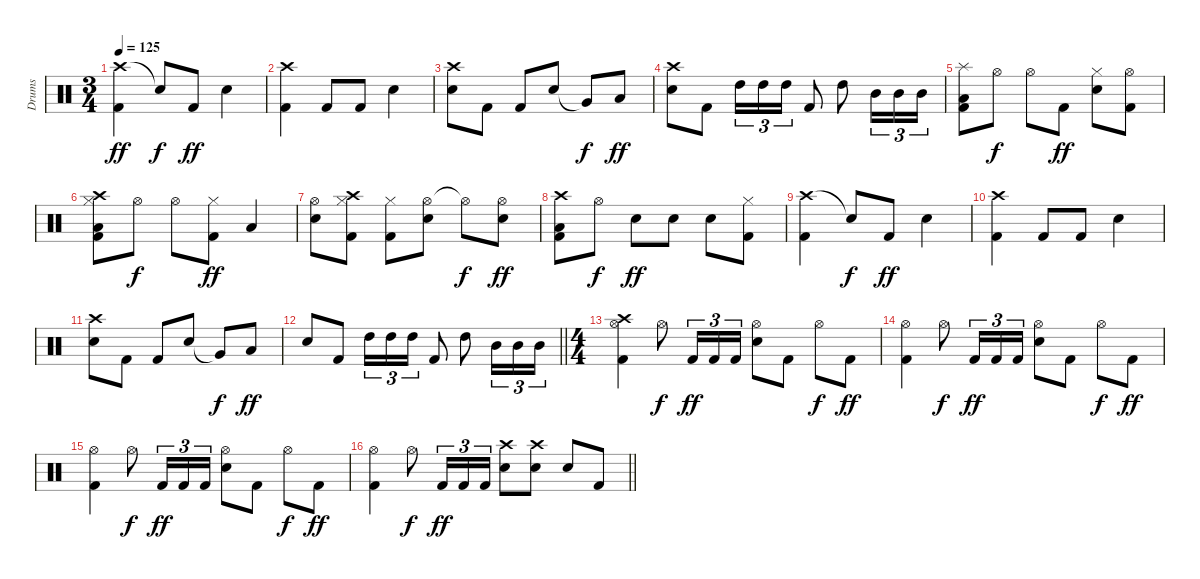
\track ("Drums" "Drums") {instrument percussion}
\staff {score}
\articulation defaults
\ts (3 4)
\section ("" "")
\tempo 125
\clef neutral
\ks c
("Crash high (hit)" "Kick (hit) 2").4{dy ff} "Snare (hit)"{t}.8{dy f} "Kick (hit) 2".8{dy ff} "Snare (hit) 2".4 |
("Crash high (hit)" "Kick (hit) 2").4 "Kick (hit) 2".8 "Kick (hit) 2".8 "Snare (hit) 2".4 |
("Crash high (hit)" "Snare (hit) 2").8 "Kick (hit) 2".8 "Kick (hit) 2".8 "Snare (hit) 2".8 "Very Low Tom (hit)"{t}.8{dy f} "Low Floor Tom (hit)".8{dy ff} |
("Crash high (hit)" "Snare (hit) 2").8 "Kick (hit) 2".8 "High Tom (hit)".16{tu (3 2)} "High Tom (hit)".16{tu (3 2)} "High Tom (hit)".16{tu (3 2)} "Kick (hit) 2".8 "High Tom (hit)".8 "Mid Tom (hit)".16{tu (3 2)} "Mid Tom (hit)".16{tu (3 2)} "Mid Tom (hit)".16{tu (3 2)} |
("Splash (hit)" "Low Floor Tom (hit)" "Kick (hit) 2").8 "Hi-Hat (open)".8{dy f} "Hi-Hat (open)".8 "Kick (hit) 2".8{dy ff} ("Hi-Hat (closed)" "Snare (hit) 2").8 ("Hi-Hat (open)" "Kick (hit) 2").8 |
("Crash high (hit)" "Hi-Hat (closed)" "Low Floor Tom (hit)" "Kick (hit) 2").8 "Hi-Hat (open)".8{dy f} "Hi-Hat (open)".8 ("Hi-Hat (closed)" "Kick (hit) 2").8{dy ff} "Low Floor Tom (hit)".4 |
("Hi-Hat (open)" "Snare (hit) 2").8 ("Crash high (hit)" "Hi-Hat (closed)" "Kick (hit) 2").8 ("Hi-Hat (closed)" "Kick (hit) 2").8 ("Hi-Hat (open)" "Snare (hit) 2").8 "Hi-Hat (open)"{t}.8{dy f} ("Hi-Hat (open)" "Snare (hit) 2").8{dy ff} |
("Crash high (hit)" "Low Floor Tom (hit)" "Kick (hit) 2").8 "Hi-Hat (open)".8{dy f} "Snare (hit) 2".8{dy ff} "Snare (hit) 2".8 "Snare (hit) 2".8 ("Hi-Hat (closed)" "Kick (hit) 2").8 |
("Crash high (hit)" "Kick (hit) 2").4 "Snare (hit)"{t}.8{dy f} "Kick (hit) 2".8{dy ff} "Snare (hit) 2".4 |
("Crash high (hit)" "Kick (hit) 2").4 "Kick (hit) 2".8 "Kick (hit) 2".8 "Snare (hit) 2".4 |
("Crash high (hit)" "Snare (hit) 2").8 "Kick (hit) 2".8 "Kick (hit) 2".8 "Snare (hit) 2".8 "Very Low Tom (hit)"{t}.8{dy f} "Low Floor Tom (hit)".8{dy ff} |
\barLineRight lightlight "Snare (hit) 2".8 "Kick (hit) 2".8 "High Tom (hit)".16{tu (3 2)} "High Tom (hit)".16{tu (3 2)} "High Tom (hit)".16{tu (3 2)} "Kick (hit) 2".8 "High Tom (hit)".8 "Mid Tom (hit)".16{tu (3 2)} "Mid Tom (hit)".16{tu (3 2)} "Mid Tom (hit)".16{tu (3 2)}
|
\ts (4 4)
\section ("" "")
("Crash high (hit)" "Hi-Hat (open)" "Kick (hit) 2").4 "Hi-Hat (open)".8{dy f} "Kick (hit) 2".16{tu (3 2) dy ff} "Kick (hit) 2".16{tu (3 2)} "Kick (hit) 2".16{tu (3 2)} ("Hi-Hat (open)" "Snare (hit) 2").8 "Kick (hit) 2".8 "Hi-Hat (open)".8{dy f} "Kick (hit) 2".8{dy ff} |
("Hi-Hat (open)" "Kick (hit) 2").4 "Hi-Hat (open)".8{dy f} "Kick (hit) 2".16{tu (3 2) dy ff} "Kick (hit) 2".16{tu (3 2)} "Kick (hit) 2".16{tu (3 2)} ("Hi-Hat (open)" "Snare (hit) 2").8 "Kick (hit) 2".8 "Hi-Hat (open)".8{dy f} "Kick (hit) 2".8{dy ff} |
("Hi-Hat (open)" "Kick (hit) 2").4 "Hi-Hat (open)".8{dy f} "Kick (hit) 2".16{tu (3 2) dy ff} "Kick (hit) 2".16{tu (3 2)} "Kick (hit) 2".16{tu (3 2)} ("Hi-Hat (open)" "Snare (hit) 2").8 "Kick (hit) 2".8 "Hi-Hat (open)".8{dy f} "Kick (hit) 2".8{dy ff} |
\barLineRight lightlight
("Hi-Hat (open)" "Kick (hit) 2").4 "Hi-Hat (open)".8{dy f} "Kick (hit) 2".16{tu (3 2) dy ff} "Kick (hit) 2".16{tu (3 2)} "Kick (hit) 2".16{tu (3 2)} ("Crash high (hit)" "Snare (hit) 2").8 ("Crash high (hit)" "Snare (hit) 2").8 "Snare (hit) 2".8 "Kick (hit) 2".8
